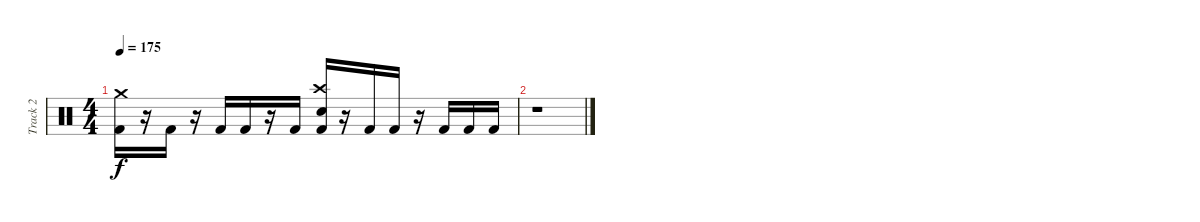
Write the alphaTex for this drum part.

\track ("Track 2" "Track 2") {instrument percussion}
\staff {score}
\articulation defaults
\ts (4 4)
\tempo 175
\clef neutral
\ks c
("Crash medium (hit)" "Kick (hit) 2").16{dy f} r.16 "Kick (hit) 2".16 r.16 "Kick (hit) 2".16 "Kick (hit) 2".16 r.16 "Kick (hit) 2".16 ("Crash high (hit)" "Electric Snare (hit)" "Kick (hit) 2").16 r.16 "Kick (hit) 2".16 "Kick (hit) 2".16 r.16 "Kick (hit) 2".16 "Kick (hit) 2".16 "Kick (hit) 2".16 |
r.1
